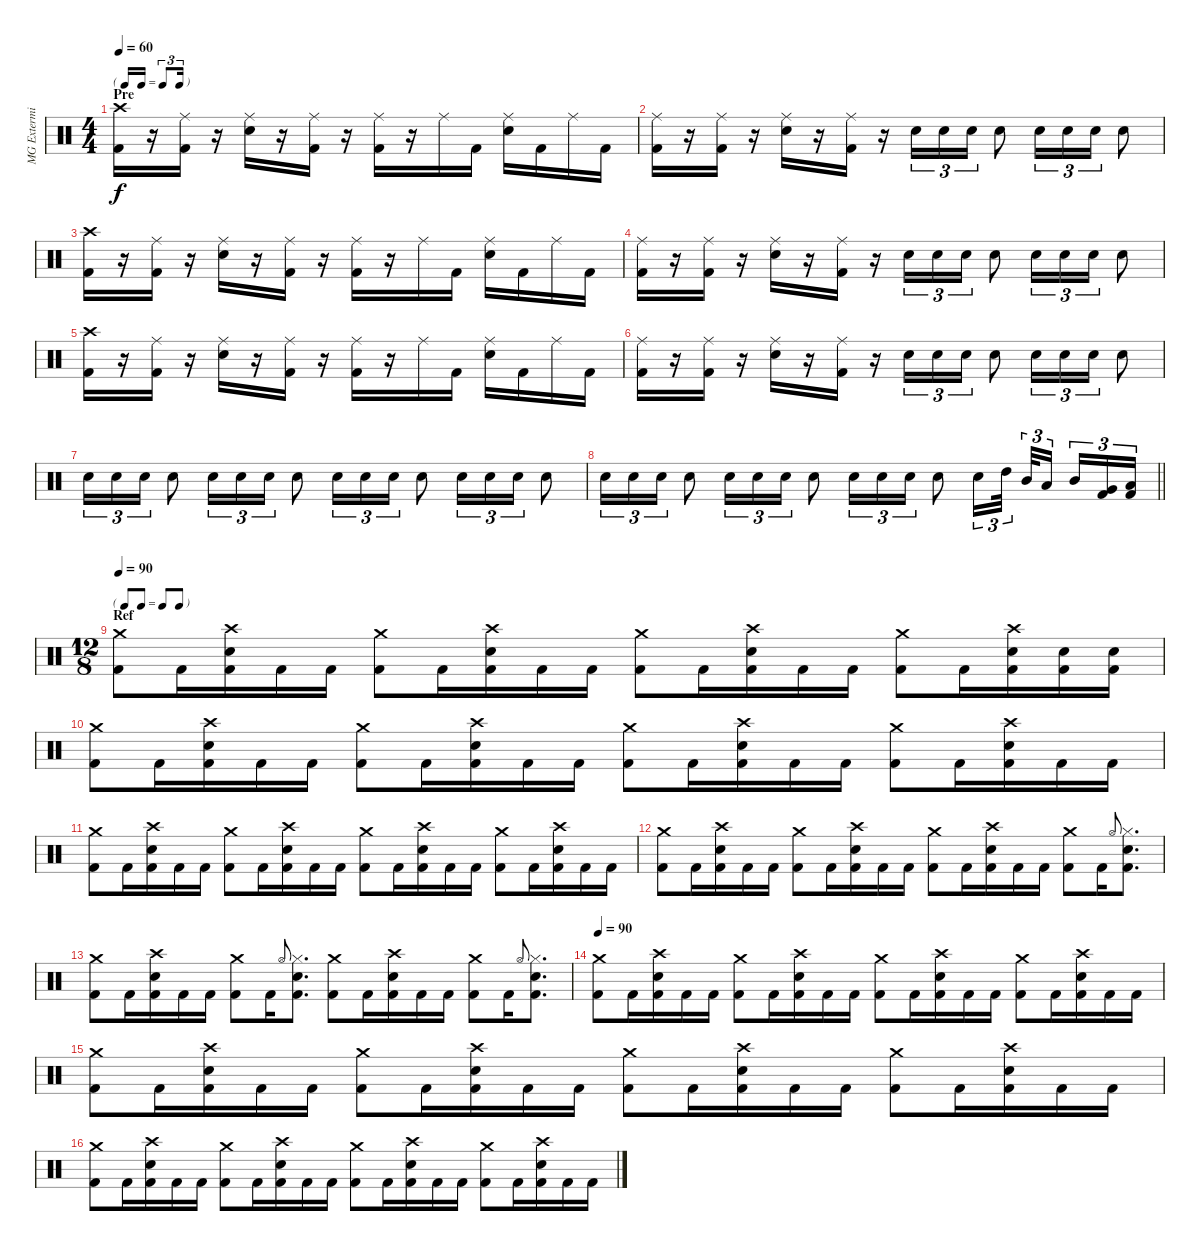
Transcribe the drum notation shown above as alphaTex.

\track ("MG Exterminator" "MG Extermi") {instrument percussion}
\staff {score}
\articulation defaults
\ts (4 4)
\tf triplet16th
\section ("" "Pre")
\tempo 60
\clef neutral
\ks c
("Crash high (hit)" "Kick (hit) 2").16{dy f} r.16 ("Ride (middle)" "Kick (hit) 2").16 r.16 ("Ride (middle)" "Snare (hit) 2").16 r.16 ("Ride (middle)" "Kick (hit) 2").16 r.16 ("Ride (middle)" "Kick (hit) 2").16 r.16 "Ride (middle)".16 "Kick (hit) 2".16 ("Ride (middle)" "Snare (hit) 2").16 "Kick (hit) 2".16 "Ride (middle)".16 "Kick (hit) 2".16 |
("Ride (middle)" "Kick (hit) 2").16 r.16 ("Ride (middle)" "Kick (hit) 2").16 r.16 ("Ride (middle)" "Snare (hit) 2").16 r.16 ("Ride (middle)" "Kick (hit) 2").16 r.16 "Snare (hit) 2".16{tu (3 2)} "Snare (hit) 2".16{tu (3 2)} "Snare (hit) 2".16{tu (3 2)} "Snare (hit) 2".8 "Snare (hit) 2".16{tu (3 2)} "Snare (hit) 2".16{tu (3 2)} "Snare (hit) 2".16{tu (3 2)} "Snare (hit) 2".8 |
("Crash high (hit)" "Kick (hit) 2").16 r.16 ("Ride (middle)" "Kick (hit) 2").16 r.16 ("Ride (middle)" "Snare (hit) 2").16 r.16 ("Ride (middle)" "Kick (hit) 2").16 r.16 ("Ride (middle)" "Kick (hit) 2").16 r.16 "Ride (middle)".16 "Kick (hit) 2".16 ("Ride (middle)" "Snare (hit) 2").16 "Kick (hit) 2".16 "Ride (middle)".16 "Kick (hit) 2".16 |
("Ride (middle)" "Kick (hit) 2").16 r.16 ("Ride (middle)" "Kick (hit) 2").16 r.16 ("Ride (middle)" "Snare (hit) 2").16 r.16 ("Ride (middle)" "Kick (hit) 2").16 r.16 "Snare (hit) 2".16{tu (3 2)} "Snare (hit) 2".16{tu (3 2)} "Snare (hit) 2".16{tu (3 2)} "Snare (hit) 2".8 "Snare (hit) 2".16{tu (3 2)} "Snare (hit) 2".16{tu (3 2)} "Snare (hit) 2".16{tu (3 2)} "Snare (hit) 2".8 |
("Crash high (hit)" "Kick (hit) 2").16 r.16 ("Ride (middle)" "Kick (hit) 2").16 r.16 ("Ride (middle)" "Snare (hit) 2").16 r.16 ("Ride (middle)" "Kick (hit) 2").16 r.16 ("Ride (middle)" "Kick (hit) 2").16 r.16 "Ride (middle)".16 "Kick (hit) 2".16 ("Ride (middle)" "Snare (hit) 2").16 "Kick (hit) 2".16 "Ride (middle)".16 "Kick (hit) 2".16 |
("Ride (middle)" "Kick (hit) 2").16 r.16 ("Ride (middle)" "Kick (hit) 2").16 r.16 ("Ride (middle)" "Snare (hit) 2").16 r.16 ("Ride (middle)" "Kick (hit) 2").16 r.16 "Snare (hit) 2".16{tu (3 2)} "Snare (hit) 2".16{tu (3 2)} "Snare (hit) 2".16{tu (3 2)} "Snare (hit) 2".8 "Snare (hit) 2".16{tu (3 2)} "Snare (hit) 2".16{tu (3 2)} "Snare (hit) 2".16{tu (3 2)} "Snare (hit) 2".8 |
"Snare (hit) 2".16{tu (3 2)} "Snare (hit) 2".16{tu (3 2)} "Snare (hit) 2".16{tu (3 2)} "Snare (hit) 2".8 "Snare (hit) 2".16{tu (3 2)} "Snare (hit) 2".16{tu (3 2)} "Snare (hit) 2".16{tu (3 2)} "Snare (hit) 2".8 "Snare (hit) 2".16{tu (3 2)} "Snare (hit) 2".16{tu (3 2)} "Snare (hit) 2".16{tu (3 2)} "Snare (hit) 2".8 "Snare (hit) 2".16{tu (3 2)} "Snare (hit) 2".16{tu (3 2)} "Snare (hit) 2".16{tu (3 2)} "Snare (hit) 2".8 |
\barLineRight lightlight "Snare (hit) 2".16{tu (3 2)} "Snare (hit) 2".16{tu (3 2)} "Snare (hit) 2".16{tu (3 2)} "Snare (hit) 2".8 "Snare (hit) 2".16{tu (3 2)} "Snare (hit) 2".16{tu (3 2)} "Snare (hit) 2".16{tu (3 2)} "Snare (hit) 2".8 "Snare (hit) 2".16{tu (3 2)} "Snare (hit) 2".16{tu (3 2)} "Snare (hit) 2".16{tu (3 2)} "Snare (hit) 2".8 "Snare (hit) 2".16{tu (3 2)} "High Tom (hit)".32{tu (3 2) beam splitsecondary} "Mid Tom (hit)".32{tu (3 2)} "Low Tom (hit)".16{tu (3 2) beam splitsecondary} "Mid Tom (hit)".16{tu (3 2)}
("Very Low Tom (hit)" "Kick (hit) 2").16{tu (3 2)} ("Low Floor Tom (hit)" "Kick (hit) 2").16{tu (3 2)} |
\ts (12 8)
\tf none
\section ("" "Ref")
\tempo 90
("Crash medium (hit)" "Kick (hit) 2").8 "Kick (hit) 2".16 ("Crash high (hit)" "Snare (hit) 2" "Kick (hit) 2").16 "Kick (hit) 2".16 "Kick (hit) 2".16 ("Crash medium (hit)" "Kick (hit) 2").8 "Kick (hit) 2".16 ("Crash high (hit)" "Snare (hit) 2" "Kick (hit) 2").16 "Kick (hit) 2".16 "Kick (hit) 2".16 ("Crash medium (hit)" "Kick (hit) 2").8 "Kick (hit) 2".16 ("Crash high (hit)" "Snare (hit) 2" "Kick (hit) 2").16 "Kick (hit) 2".16 "Kick (hit) 2".16 ("Crash medium (hit)" "Kick (hit) 2").8 "Kick (hit) 2".16 ("Crash high (hit)" "Snare (hit) 2" "Kick (hit) 2").16 ("Snare (hit) 2" "Kick (hit) 2").16 ("Snare (hit) 2" "Kick (hit) 2").16 |
("Crash medium (hit)" "Kick (hit) 2").8 "Kick (hit) 2".16 ("Crash high (hit)" "Snare (hit) 2" "Kick (hit) 2").16 "Kick (hit) 2".16 "Kick (hit) 2".16 ("Crash medium (hit)" "Kick (hit) 2").8 "Kick (hit) 2".16 ("Crash high (hit)" "Snare (hit) 2" "Kick (hit) 2").16 "Kick (hit) 2".16 "Kick (hit) 2".16 ("Crash medium (hit)" "Kick (hit) 2").8 "Kick (hit) 2".16 ("Crash high (hit)" "Snare (hit) 2" "Kick (hit) 2").16 "Kick (hit) 2".16 "Kick (hit) 2".16 ("Crash medium (hit)" "Kick (hit) 2").8 "Kick (hit) 2".16 ("Crash high (hit)" "Snare (hit) 2" "Kick (hit) 2").16 "Kick (hit) 2".16 "Kick (hit) 2".16 |
("Crash medium (hit)" "Kick (hit) 2").8 "Kick (hit) 2".16 ("Crash high (hit)" "Snare (hit) 2" "Kick (hit) 2").16 "Kick (hit) 2".16 "Kick (hit) 2".16 ("Crash medium (hit)" "Kick (hit) 2").8 "Kick (hit) 2".16 ("Crash high (hit)" "Snare (hit) 2" "Kick (hit) 2").16 "Kick (hit) 2".16 "Kick (hit) 2".16 ("Crash medium (hit)" "Kick (hit) 2").8 "Kick (hit) 2".16 ("Crash high (hit)" "Snare (hit) 2" "Kick (hit) 2").16 "Kick (hit) 2".16 "Kick (hit) 2".16 ("Crash medium (hit)" "Kick (hit) 2").8 "Kick (hit) 2".16 ("Crash high (hit)" "Snare (hit) 2" "Kick (hit) 2").16 "Kick (hit) 2".16 "Kick (hit) 2".16 |
("Crash medium (hit)" "Kick (hit) 2").8 "Kick (hit) 2".16 ("Crash high (hit)" "Snare (hit) 2" "Kick (hit) 2").16 "Kick (hit) 2".16 "Kick (hit) 2".16 ("Crash medium (hit)" "Kick (hit) 2").8 "Kick (hit) 2".16 ("Crash high (hit)" "Snare (hit) 2" "Kick (hit) 2").16 "Kick (hit) 2".16 "Kick (hit) 2".16 ("Crash medium (hit)" "Kick (hit) 2").8 "Kick (hit) 2".16 ("Crash high (hit)" "Snare (hit) 2" "Kick (hit) 2").16 "Kick (hit) 2".16 "Kick (hit) 2".16 ("Crash medium (hit)" "Kick (hit) 2").8 "Kick (hit) 2".16 "Hi-Hat (open)".8{gr onbeat} ("Hi-Hat (closed)" "Snare (hit) 2" "Kick (hit) 2").8{d} |
("Crash medium (hit)" "Kick (hit) 2").8 "Kick (hit) 2".16 ("Crash high (hit)" "Snare (hit) 2" "Kick (hit) 2").16 "Kick (hit) 2".16 "Kick (hit) 2".16 ("Crash medium (hit)" "Kick (hit) 2").8 "Kick (hit) 2".16 "Hi-Hat (open)".8{gr onbeat} ("Hi-Hat (closed)" "Snare (hit) 2" "Kick (hit) 2").8{d} ("Crash medium (hit)" "Kick (hit) 2").8 "Kick (hit) 2".16 ("Crash high (hit)" "Snare (hit) 2" "Kick (hit) 2").16 "Kick (hit) 2".16 "Kick (hit) 2".16 ("Crash medium (hit)" "Kick (hit) 2").8 "Kick (hit) 2".16 "Hi-Hat (open)".8{gr onbeat} ("Hi-Hat (closed)" "Snare (hit) 2" "Kick (hit) 2").8{d} |
\tempo 90
("Crash medium (hit)" "Kick (hit) 2").8 "Kick (hit) 2".16 ("Crash high (hit)" "Snare (hit) 2" "Kick (hit) 2").16 "Kick (hit) 2".16 "Kick (hit) 2".16 ("Crash medium (hit)" "Kick (hit) 2").8 "Kick (hit) 2".16 ("Crash high (hit)" "Snare (hit) 2" "Kick (hit) 2").16 "Kick (hit) 2".16 "Kick (hit) 2".16 ("Crash medium (hit)" "Kick (hit) 2").8 "Kick (hit) 2".16 ("Crash high (hit)" "Snare (hit) 2" "Kick (hit) 2").16 "Kick (hit) 2".16 "Kick (hit) 2".16 ("Crash medium (hit)" "Kick (hit) 2").8 "Kick (hit) 2".16 ("Crash high (hit)" "Snare (hit) 2" "Kick (hit) 2").16 "Kick (hit) 2".16 "Kick (hit) 2".16 |
("Crash medium (hit)" "Kick (hit) 2").8 "Kick (hit) 2".16 ("Crash high (hit)" "Snare (hit) 2" "Kick (hit) 2").16 "Kick (hit) 2".16 "Kick (hit) 2".16 ("Crash medium (hit)" "Kick (hit) 2").8 "Kick (hit) 2".16 ("Crash high (hit)" "Snare (hit) 2" "Kick (hit) 2").16 "Kick (hit) 2".16 "Kick (hit) 2".16 ("Crash medium (hit)" "Kick (hit) 2").8 "Kick (hit) 2".16 ("Crash high (hit)" "Snare (hit) 2" "Kick (hit) 2").16 "Kick (hit) 2".16 "Kick (hit) 2".16 ("Crash medium (hit)" "Kick (hit) 2").8 "Kick (hit) 2".16 ("Crash high (hit)" "Snare (hit) 2" "Kick (hit) 2").16 "Kick (hit) 2".16 "Kick (hit) 2".16 |
("Crash medium (hit)" "Kick (hit) 2").8 "Kick (hit) 2".16 ("Crash high (hit)" "Snare (hit) 2" "Kick (hit) 2").16 "Kick (hit) 2".16 "Kick (hit) 2".16 ("Crash medium (hit)" "Kick (hit) 2").8 "Kick (hit) 2".16 ("Crash high (hit)" "Snare (hit) 2" "Kick (hit) 2").16 "Kick (hit) 2".16 "Kick (hit) 2".16 ("Crash medium (hit)" "Kick (hit) 2").8 "Kick (hit) 2".16 ("Crash high (hit)" "Snare (hit) 2" "Kick (hit) 2").16 "Kick (hit) 2".16 "Kick (hit) 2".16 ("Crash medium (hit)" "Kick (hit) 2").8 "Kick (hit) 2".16 ("Crash high (hit)" "Snare (hit) 2" "Kick (hit) 2").16 "Kick (hit) 2".16 "Kick (hit) 2".16
